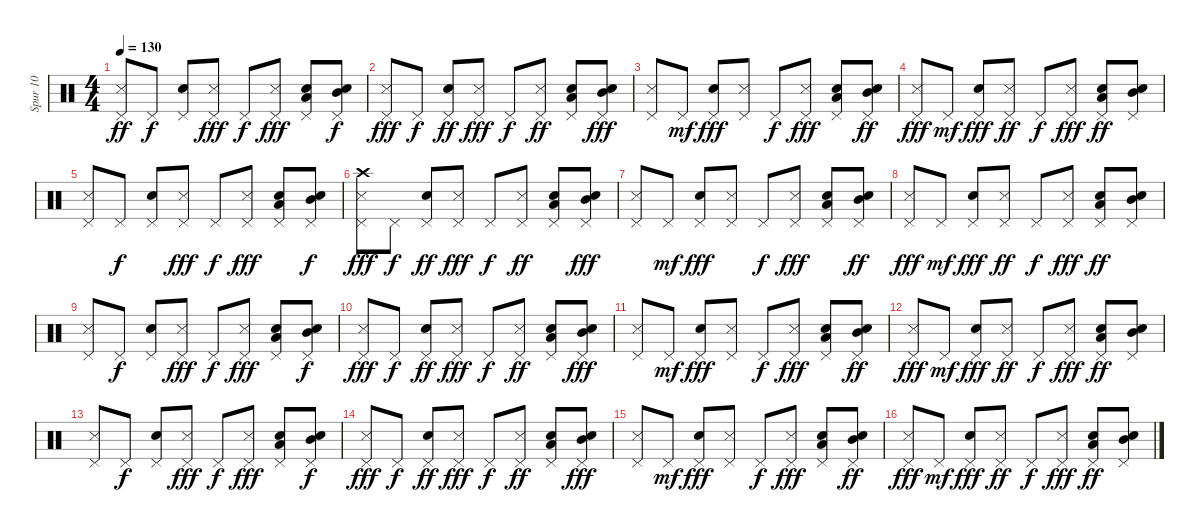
\track ("Spur 10" "Spur 10") {instrument percussion}
\staff {score}
\articulation defaults
\ts (4 4)
\tempo 130
\clef neutral
\ks c
("Metronome (hit)" "Pedal Hi-Hat (hit)").8{dy ff} "Pedal Hi-Hat (hit)".8{dy f} ("Snare (hit) 2" "Pedal Hi-Hat (hit)").8 ("Metronome (hit)" "Pedal Hi-Hat (hit)").8{dy fff} "Pedal Hi-Hat (hit)".8{dy f} ("Metronome (hit)" "Pedal Hi-Hat (hit)").8{dy fff} ("Snare (hit) 2" "Low Tom (hit)" "Pedal Hi-Hat (hit)").8 ("Snare (hit) 2" "Mid Tom (hit)" "Pedal Hi-Hat (hit)").8{dy f} |
("Pedal Hi-Hat (hit)" "Metronome (hit)").8{dy fff} "Pedal Hi-Hat (hit)".8{dy f} ("Snare (hit) 2" "Pedal Hi-Hat (hit)").8{dy ff} ("Metronome (hit)" "Pedal Hi-Hat (hit)").8{dy fff} "Pedal Hi-Hat (hit)".8{dy f} ("Metronome (hit)" "Pedal Hi-Hat (hit)").8{dy ff} ("Low Tom (hit)" "Snare (hit) 2" "Pedal Hi-Hat (hit)").8 ("Mid Tom (hit)" "Snare (hit) 2" "Pedal Hi-Hat (hit)").8{dy fff} |
("Pedal Hi-Hat (hit)" "Metronome (hit)").8 "Pedal Hi-Hat (hit)".8{dy mf} ("Pedal Hi-Hat (hit)" "Snare (hit) 2").8{dy fff} ("Pedal Hi-Hat (hit)" "Metronome (hit)").8 "Pedal Hi-Hat (hit)".8{dy f} ("Pedal Hi-Hat (hit)" "Metronome (hit)").8{dy fff} ("Low Tom (hit)" "Pedal Hi-Hat (hit)" "Snare (hit) 2").8 ("Mid Tom (hit)" "Pedal Hi-Hat (hit)" "Snare (hit) 2").8{dy ff} |
("Pedal Hi-Hat (hit)" "Metronome (hit)").8{dy fff} "Pedal Hi-Hat (hit)".8{dy mf} ("Pedal Hi-Hat (hit)" "Snare (hit) 2").8{dy fff} ("Metronome (hit)" "Pedal Hi-Hat (hit)").8{dy ff} "Pedal Hi-Hat (hit)".8{dy f} ("Metronome (hit)" "Pedal Hi-Hat (hit)").8{dy fff} ("Snare (hit) 2" "Low Tom (hit)" "Pedal Hi-Hat (hit)").8{dy ff} ("Snare (hit) 2" "Mid Tom (hit)" "Pedal Hi-Hat (hit)").8 |
("Metronome (hit)" "Pedal Hi-Hat (hit)").8 "Pedal Hi-Hat (hit)".8{dy f} ("Snare (hit) 2" "Pedal Hi-Hat (hit)").8 ("Metronome (hit)" "Pedal Hi-Hat (hit)").8{dy fff} "Pedal Hi-Hat (hit)".8{dy f} ("Metronome (hit)" "Pedal Hi-Hat (hit)").8{dy fff} ("Snare (hit) 2" "Low Tom (hit)" "Pedal Hi-Hat (hit)").8 ("Snare (hit) 2" "Mid Tom (hit)" "Pedal Hi-Hat (hit)").8{dy f} |
("Pedal Hi-Hat (hit)" "Metronome (hit)" "Crash high (hit)").8{dy fff} "Pedal Hi-Hat (hit)".8{dy f} ("Snare (hit) 2" "Pedal Hi-Hat (hit)").8{dy ff} ("Metronome (hit)" "Pedal Hi-Hat (hit)").8{dy fff} "Pedal Hi-Hat (hit)".8{dy f} ("Metronome (hit)" "Pedal Hi-Hat (hit)").8{dy ff} ("Low Tom (hit)" "Snare (hit) 2" "Pedal Hi-Hat (hit)").8 ("Mid Tom (hit)" "Snare (hit) 2" "Pedal Hi-Hat (hit)").8{dy fff} |
("Pedal Hi-Hat (hit)" "Metronome (hit)").8 "Pedal Hi-Hat (hit)".8{dy mf} ("Pedal Hi-Hat (hit)" "Snare (hit) 2").8{dy fff} ("Pedal Hi-Hat (hit)" "Metronome (hit)").8 "Pedal Hi-Hat (hit)".8{dy f} ("Pedal Hi-Hat (hit)" "Metronome (hit)").8{dy fff} ("Low Tom (hit)" "Pedal Hi-Hat (hit)" "Snare (hit) 2").8 ("Mid Tom (hit)" "Pedal Hi-Hat (hit)" "Snare (hit) 2").8{dy ff} |
("Pedal Hi-Hat (hit)" "Metronome (hit)").8{dy fff} "Pedal Hi-Hat (hit)".8{dy mf} ("Pedal Hi-Hat (hit)" "Snare (hit) 2").8{dy fff} ("Metronome (hit)" "Pedal Hi-Hat (hit)").8{dy ff} "Pedal Hi-Hat (hit)".8{dy f} ("Metronome (hit)" "Pedal Hi-Hat (hit)").8{dy fff} ("Snare (hit) 2" "Low Tom (hit)" "Pedal Hi-Hat (hit)").8{dy ff} ("Snare (hit) 2" "Mid Tom (hit)" "Pedal Hi-Hat (hit)").8 |
("Metronome (hit)" "Pedal Hi-Hat (hit)").8 "Pedal Hi-Hat (hit)".8{dy f} ("Snare (hit) 2" "Pedal Hi-Hat (hit)").8 ("Metronome (hit)" "Pedal Hi-Hat (hit)").8{dy fff} "Pedal Hi-Hat (hit)".8{dy f} ("Metronome (hit)" "Pedal Hi-Hat (hit)").8{dy fff} ("Snare (hit) 2" "Low Tom (hit)" "Pedal Hi-Hat (hit)").8 ("Snare (hit) 2" "Mid Tom (hit)" "Pedal Hi-Hat (hit)").8{dy f} |
("Pedal Hi-Hat (hit)" "Metronome (hit)").8{dy fff} "Pedal Hi-Hat (hit)".8{dy f} ("Snare (hit) 2" "Pedal Hi-Hat (hit)").8{dy ff} ("Metronome (hit)" "Pedal Hi-Hat (hit)").8{dy fff} "Pedal Hi-Hat (hit)".8{dy f} ("Metronome (hit)" "Pedal Hi-Hat (hit)").8{dy ff} ("Low Tom (hit)" "Snare (hit) 2" "Pedal Hi-Hat (hit)").8 ("Mid Tom (hit)" "Snare (hit) 2" "Pedal Hi-Hat (hit)").8{dy fff} |
("Pedal Hi-Hat (hit)" "Metronome (hit)").8 "Pedal Hi-Hat (hit)".8{dy mf} ("Pedal Hi-Hat (hit)" "Snare (hit) 2").8{dy fff} ("Pedal Hi-Hat (hit)" "Metronome (hit)").8 "Pedal Hi-Hat (hit)".8{dy f} ("Pedal Hi-Hat (hit)" "Metronome (hit)").8{dy fff} ("Low Tom (hit)" "Pedal Hi-Hat (hit)" "Snare (hit) 2").8 ("Mid Tom (hit)" "Pedal Hi-Hat (hit)" "Snare (hit) 2").8{dy ff} |
("Pedal Hi-Hat (hit)" "Metronome (hit)").8{dy fff} "Pedal Hi-Hat (hit)".8{dy mf} ("Pedal Hi-Hat (hit)" "Snare (hit) 2").8{dy fff} ("Metronome (hit)" "Pedal Hi-Hat (hit)").8{dy ff} "Pedal Hi-Hat (hit)".8{dy f} ("Metronome (hit)" "Pedal Hi-Hat (hit)").8{dy fff} ("Snare (hit) 2" "Low Tom (hit)" "Pedal Hi-Hat (hit)").8{dy ff} ("Snare (hit) 2" "Mid Tom (hit)" "Pedal Hi-Hat (hit)").8 |
("Metronome (hit)" "Pedal Hi-Hat (hit)").8 "Pedal Hi-Hat (hit)".8{dy f} ("Snare (hit) 2" "Pedal Hi-Hat (hit)").8 ("Metronome (hit)" "Pedal Hi-Hat (hit)").8{dy fff} "Pedal Hi-Hat (hit)".8{dy f} ("Metronome (hit)" "Pedal Hi-Hat (hit)").8{dy fff} ("Snare (hit) 2" "Low Tom (hit)" "Pedal Hi-Hat (hit)").8 ("Snare (hit) 2" "Mid Tom (hit)" "Pedal Hi-Hat (hit)").8{dy f} |
("Pedal Hi-Hat (hit)" "Metronome (hit)").8{dy fff} "Pedal Hi-Hat (hit)".8{dy f} ("Snare (hit) 2" "Pedal Hi-Hat (hit)").8{dy ff} ("Metronome (hit)" "Pedal Hi-Hat (hit)").8{dy fff} "Pedal Hi-Hat (hit)".8{dy f} ("Metronome (hit)" "Pedal Hi-Hat (hit)").8{dy ff} ("Low Tom (hit)" "Snare (hit) 2" "Pedal Hi-Hat (hit)").8 ("Mid Tom (hit)" "Snare (hit) 2" "Pedal Hi-Hat (hit)").8{dy fff} |
("Pedal Hi-Hat (hit)" "Metronome (hit)").8 "Pedal Hi-Hat (hit)".8{dy mf} ("Pedal Hi-Hat (hit)" "Snare (hit) 2").8{dy fff} ("Pedal Hi-Hat (hit)" "Metronome (hit)").8 "Pedal Hi-Hat (hit)".8{dy f} ("Pedal Hi-Hat (hit)" "Metronome (hit)").8{dy fff} ("Low Tom (hit)" "Pedal Hi-Hat (hit)" "Snare (hit) 2").8 ("Mid Tom (hit)" "Pedal Hi-Hat (hit)" "Snare (hit) 2").8{dy ff} |
("Pedal Hi-Hat (hit)" "Metronome (hit)").8{dy fff} "Pedal Hi-Hat (hit)".8{dy mf} ("Pedal Hi-Hat (hit)" "Snare (hit) 2").8{dy fff} ("Metronome (hit)" "Pedal Hi-Hat (hit)").8{dy ff} "Pedal Hi-Hat (hit)".8{dy f} ("Metronome (hit)" "Pedal Hi-Hat (hit)").8{dy fff} ("Snare (hit) 2" "Low Tom (hit)" "Pedal Hi-Hat (hit)").8{dy ff} ("Snare (hit) 2" "Mid Tom (hit)" "Pedal Hi-Hat (hit)").8
